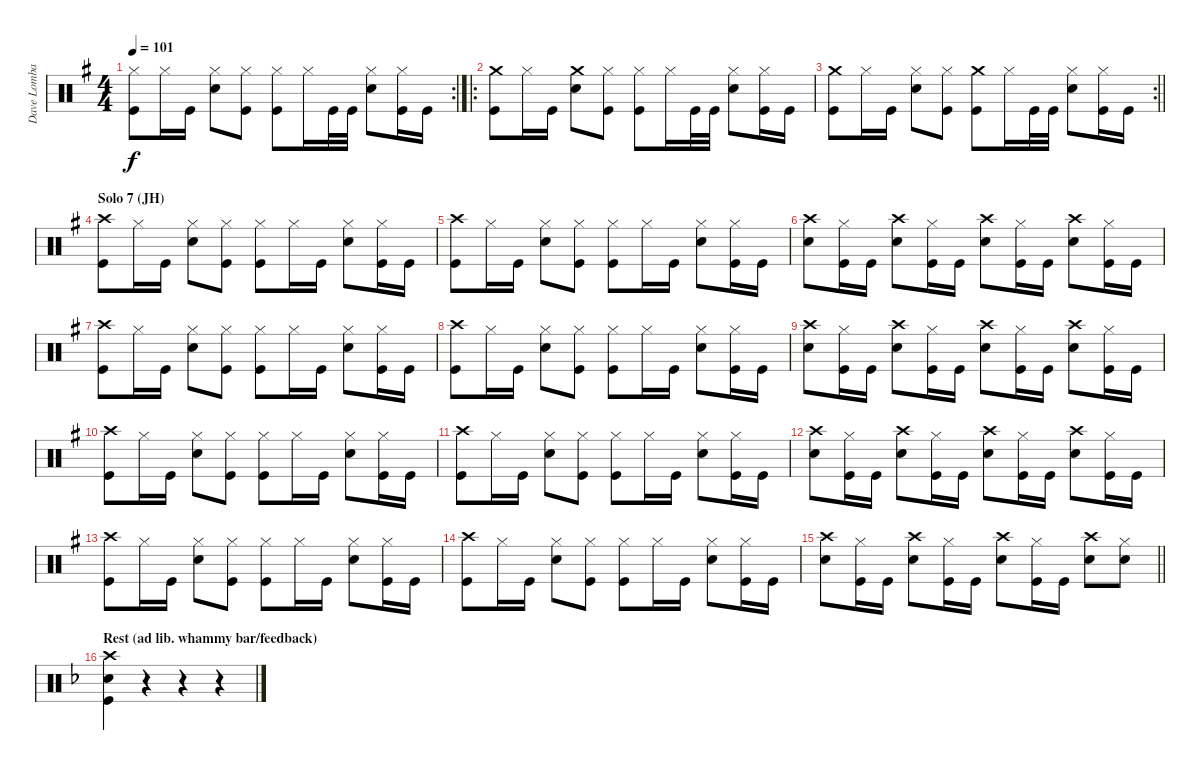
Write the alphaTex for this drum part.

\track ("Dave Lombardo" "Dave Lomba") {instrument percussion}
\staff {score}
\articulation defaults
\rc 2
\ts (4 4)
\tempo 101
\clef neutral
\ks g
("Hi-Hat (closed)" "Kick (hit)").8{dy f} "Hi-Hat (closed)".16 "Kick (hit)".16 ("Hi-Hat (closed)" "Snare (hit) 2").8 ("Hi-Hat (closed)" "Kick (hit)").8 ("Hi-Hat (closed)" "Kick (hit)").8 "Hi-Hat (closed)".16 "Kick (hit)".32 "Kick (hit)".32 ("Hi-Hat (closed)" "Snare (hit) 2").8 ("Hi-Hat (closed)" "Kick (hit)").16 "Kick (hit)".16 |
\ro
("Crash medium (hit)" "Kick (hit)").8 "Hi-Hat (closed)".16 "Kick (hit)".16 ("Crash medium (hit)" "Snare (hit) 2").8 ("Hi-Hat (closed)" "Kick (hit)").8 ("Hi-Hat (closed)" "Kick (hit)").8 "Hi-Hat (closed)".16 "Kick (hit)".32 "Kick (hit)".32 ("Hi-Hat (closed)" "Snare (hit) 2").8 ("Hi-Hat (closed)" "Kick (hit)").16 "Kick (hit)".16 |
\rc 2
\barLineRight lightlight
("Crash medium (hit)" "Kick (hit)").8 "Hi-Hat (closed)".16 "Kick (hit)".16 ("Hi-Hat (closed)" "Snare (hit) 2").8 ("Hi-Hat (closed)" "Kick (hit)").8 ("Crash medium (hit)" "Kick (hit)").8 "Hi-Hat (closed)".16 "Kick (hit)".32 "Kick (hit)".32 ("Hi-Hat (closed)" "Snare (hit) 2").8 ("Hi-Hat (closed)" "Kick (hit)").16 "Kick (hit)".16 |
\section ("" "Solo 7 (JH)")
("Crash high (hit)" "Kick (hit)").8 "Hi-Hat (closed)".16 "Kick (hit)".16 ("Hi-Hat (closed)" "Snare (hit) 2").8 ("Hi-Hat (closed)" "Kick (hit)").8 ("Hi-Hat (closed)" "Kick (hit)").8 "Hi-Hat (closed)".16 "Kick (hit)".16 ("Hi-Hat (closed)" "Snare (hit) 2").8 ("Hi-Hat (closed)" "Kick (hit)").16 "Kick (hit)".16 |
("Crash high (hit)" "Kick (hit)").8 "Hi-Hat (closed)".16 "Kick (hit)".16 ("Hi-Hat (closed)" "Snare (hit) 2").8 ("Hi-Hat (closed)" "Kick (hit)").8 ("Hi-Hat (closed)" "Kick (hit)").8 "Hi-Hat (closed)".16 "Kick (hit)".16 ("Hi-Hat (closed)" "Snare (hit) 2").8 ("Hi-Hat (closed)" "Kick (hit)").16 "Kick (hit)".16 |
("Crash high (hit)" "Snare (hit) 2").8 ("Hi-Hat (closed)" "Kick (hit)").16 "Kick (hit)".16 ("Crash high (hit)" "Snare (hit) 2").8 ("Hi-Hat (closed)" "Kick (hit)").16 "Kick (hit)".16 ("Crash high (hit)" "Snare (hit) 2").8 ("Hi-Hat (closed)" "Kick (hit)").16 "Kick (hit)".16 ("Crash high (hit)" "Snare (hit) 2").8 ("Hi-Hat (closed)" "Kick (hit)").16 "Kick (hit)".16 |
("Crash high (hit)" "Kick (hit)").8 "Hi-Hat (closed)".16 "Kick (hit)".16 ("Hi-Hat (closed)" "Snare (hit) 2").8 ("Hi-Hat (closed)" "Kick (hit)").8 ("Hi-Hat (closed)" "Kick (hit)").8 "Hi-Hat (closed)".16 "Kick (hit)".16 ("Hi-Hat (closed)" "Snare (hit) 2").8 ("Hi-Hat (closed)" "Kick (hit)").16 "Kick (hit)".16 |
("Crash high (hit)" "Kick (hit)").8 "Hi-Hat (closed)".16 "Kick (hit)".16 ("Hi-Hat (closed)" "Snare (hit) 2").8 ("Hi-Hat (closed)" "Kick (hit)").8 ("Hi-Hat (closed)" "Kick (hit)").8 "Hi-Hat (closed)".16 "Kick (hit)".16 ("Hi-Hat (closed)" "Snare (hit) 2").8 ("Hi-Hat (closed)" "Kick (hit)").16 "Kick (hit)".16 |
("Crash high (hit)" "Snare (hit) 2").8 ("Hi-Hat (closed)" "Kick (hit)").16 "Kick (hit)".16 ("Crash high (hit)" "Snare (hit) 2").8 ("Hi-Hat (closed)" "Kick (hit)").16 "Kick (hit)".16 ("Crash high (hit)" "Snare (hit) 2").8 ("Hi-Hat (closed)" "Kick (hit)").16 "Kick (hit)".16 ("Crash high (hit)" "Snare (hit) 2").8 ("Hi-Hat (closed)" "Kick (hit)").16 "Kick (hit)".16 |
("Crash high (hit)" "Kick (hit)").8 "Hi-Hat (closed)".16 "Kick (hit)".16 ("Hi-Hat (closed)" "Snare (hit) 2").8 ("Hi-Hat (closed)" "Kick (hit)").8 ("Hi-Hat (closed)" "Kick (hit)").8 "Hi-Hat (closed)".16 "Kick (hit)".16 ("Hi-Hat (closed)" "Snare (hit) 2").8 ("Hi-Hat (closed)" "Kick (hit)").16 "Kick (hit)".16 |
("Crash high (hit)" "Kick (hit)").8 "Hi-Hat (closed)".16 "Kick (hit)".16 ("Hi-Hat (closed)" "Snare (hit) 2").8 ("Hi-Hat (closed)" "Kick (hit)").8 ("Hi-Hat (closed)" "Kick (hit)").8 "Hi-Hat (closed)".16 "Kick (hit)".16 ("Hi-Hat (closed)" "Snare (hit) 2").8 ("Hi-Hat (closed)" "Kick (hit)").16 "Kick (hit)".16 |
("Crash high (hit)" "Snare (hit) 2").8 ("Hi-Hat (closed)" "Kick (hit)").16 "Kick (hit)".16 ("Crash high (hit)" "Snare (hit) 2").8 ("Hi-Hat (closed)" "Kick (hit)").16 "Kick (hit)".16 ("Crash high (hit)" "Snare (hit) 2").8 ("Hi-Hat (closed)" "Kick (hit)").16 "Kick (hit)".16 ("Crash high (hit)" "Snare (hit) 2").8 ("Hi-Hat (closed)" "Kick (hit)").16 "Kick (hit)".16 |
("Crash high (hit)" "Kick (hit)").8 "Hi-Hat (closed)".16 "Kick (hit)".16 ("Hi-Hat (closed)" "Snare (hit) 2").8 ("Hi-Hat (closed)" "Kick (hit)").8 ("Hi-Hat (closed)" "Kick (hit)").8 "Hi-Hat (closed)".16 "Kick (hit)".16 ("Hi-Hat (closed)" "Snare (hit) 2").8 ("Hi-Hat (closed)" "Kick (hit)").16 "Kick (hit)".16 |
("Crash high (hit)" "Kick (hit)").8 "Hi-Hat (closed)".16 "Kick (hit)".16 ("Hi-Hat (closed)" "Snare (hit) 2").8 ("Hi-Hat (closed)" "Kick (hit)").8 ("Hi-Hat (closed)" "Kick (hit)").8 "Hi-Hat (closed)".16 "Kick (hit)".16 ("Hi-Hat (closed)" "Snare (hit) 2").8 ("Hi-Hat (closed)" "Kick (hit)").16 "Kick (hit)".16 |
\barLineRight lightlight
("Crash high (hit)" "Snare (hit) 2").8 ("Hi-Hat (closed)" "Kick (hit)").16 "Kick (hit)".16 ("Crash high (hit)" "Snare (hit) 2").8 ("Hi-Hat (closed)" "Kick (hit)").16 "Kick (hit)".16 ("Crash high (hit)" "Snare (hit) 2").8 ("Hi-Hat (closed)" "Kick (hit)").16 "Kick (hit)".16 ("Crash high (hit)" "Snare (hit) 2").8 ("Hi-Hat (closed)" "Snare (hit) 2").8 |
\section ("" "Rest (ad lib. whammy bar/feedback)")
\ks f
("Crash high (hit)" "Snare (hit) 2" "Kick (hit)").4 r.4 r.4 r.4
